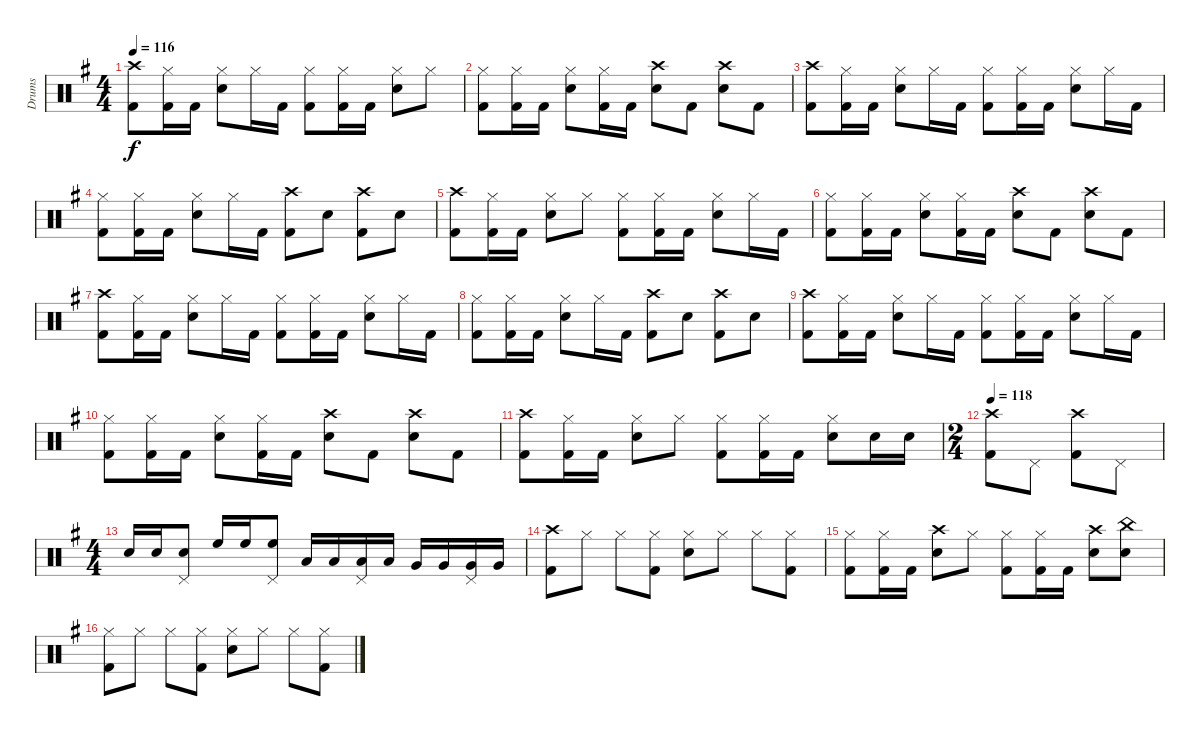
\track ("Drums" "Drums") {instrument percussion}
\staff {score}
\articulation defaults
\ts (4 4)
\tempo 116
\clef neutral
\ks eminor
("Crash high (hit)" "Kick (hit) 2").8{dy f} ("Hi-Hat (closed)" "Kick (hit) 2").16 "Kick (hit) 2".16 ("Hi-Hat (closed)" "Electric Snare (hit)").8 "Hi-Hat (closed)".16 "Kick (hit) 2".16 ("Hi-Hat (closed)" "Kick (hit) 2").8 ("Hi-Hat (closed)" "Kick (hit) 2").16 "Kick (hit) 2".16 ("Hi-Hat (closed)" "Electric Snare (hit)").8 "Hi-Hat (closed)".8 |
("Hi-Hat (closed)" "Kick (hit) 2").8 ("Hi-Hat (closed)" "Kick (hit) 2").16 "Kick (hit) 2".16 ("Hi-Hat (closed)" "Electric Snare (hit)").8 ("Hi-Hat (closed)" "Kick (hit) 2").16 "Kick (hit) 2".16 ("Crash high (hit)" "Electric Snare (hit)").8 "Kick (hit) 2".8 ("Crash high (hit)" "Electric Snare (hit)").8 "Kick (hit) 2".8 |
("Crash high (hit)" "Kick (hit) 2").8 ("Hi-Hat (closed)" "Kick (hit) 2").16 "Kick (hit) 2".16 ("Hi-Hat (closed)" "Electric Snare (hit)").8 "Hi-Hat (closed)".16 "Kick (hit) 2".16 ("Hi-Hat (closed)" "Kick (hit) 2").8 ("Hi-Hat (closed)" "Kick (hit) 2").16 "Kick (hit) 2".16 ("Hi-Hat (closed)" "Electric Snare (hit)").8 "Hi-Hat (closed)".16 "Kick (hit) 2".16 |
("Hi-Hat (closed)" "Kick (hit) 2").8 ("Hi-Hat (closed)" "Kick (hit) 2").16 "Kick (hit) 2".16 ("Hi-Hat (closed)" "Electric Snare (hit)").8 "Hi-Hat (closed)".16 "Kick (hit) 2".16 ("Crash high (hit)" "Kick (hit) 2").8 "Electric Snare (hit)".8 ("Crash high (hit)" "Kick (hit) 2").8 "Electric Snare (hit)".8 |
("Crash high (hit)" "Kick (hit) 2").8 ("Hi-Hat (closed)" "Kick (hit) 2").16 "Kick (hit) 2".16 ("Hi-Hat (closed)" "Electric Snare (hit)").8 "Hi-Hat (closed)".8 ("Hi-Hat (closed)" "Kick (hit) 2").8 ("Hi-Hat (closed)" "Kick (hit) 2").16 "Kick (hit) 2".16 ("Hi-Hat (closed)" "Electric Snare (hit)").8 "Hi-Hat (closed)".16 "Kick (hit) 2".16 |
("Hi-Hat (closed)" "Kick (hit) 2").8 ("Hi-Hat (closed)" "Kick (hit) 2").16 "Kick (hit) 2".16 ("Hi-Hat (closed)" "Electric Snare (hit)").8 ("Hi-Hat (closed)" "Kick (hit) 2").16 "Kick (hit) 2".16 ("Crash high (hit)" "Electric Snare (hit)").8 "Kick (hit) 2".8 ("Crash high (hit)" "Electric Snare (hit)").8 "Kick (hit) 2".8 |
("Crash high (hit)" "Kick (hit) 2").8 ("Hi-Hat (closed)" "Kick (hit) 2").16 "Kick (hit) 2".16 ("Hi-Hat (closed)" "Electric Snare (hit)").8 "Hi-Hat (closed)".16 "Kick (hit) 2".16 ("Hi-Hat (closed)" "Kick (hit) 2").8 ("Hi-Hat (closed)" "Kick (hit) 2").16 "Kick (hit) 2".16 ("Hi-Hat (closed)" "Electric Snare (hit)").8 "Hi-Hat (closed)".16 "Kick (hit) 2".16 |
("Hi-Hat (closed)" "Kick (hit) 2").8 ("Hi-Hat (closed)" "Kick (hit) 2").16 "Kick (hit) 2".16 ("Hi-Hat (closed)" "Electric Snare (hit)").8 "Hi-Hat (closed)".16 "Kick (hit) 2".16 ("Crash high (hit)" "Kick (hit) 2").8 "Electric Snare (hit)".8 ("Crash high (hit)" "Kick (hit) 2").8 "Electric Snare (hit)".8 |
("Crash high (hit)" "Kick (hit) 2").8 ("Hi-Hat (closed)" "Kick (hit) 2").16 "Kick (hit) 2".16 ("Hi-Hat (closed)" "Electric Snare (hit)").8 "Hi-Hat (closed)".16 "Kick (hit) 2".16 ("Hi-Hat (closed)" "Kick (hit) 2").8 ("Hi-Hat (closed)" "Kick (hit) 2").16 "Kick (hit) 2".16 ("Hi-Hat (closed)" "Electric Snare (hit)").8 "Hi-Hat (closed)".16 "Kick (hit) 2".16 |
("Hi-Hat (closed)" "Kick (hit) 2").8 ("Hi-Hat (closed)" "Kick (hit) 2").16 "Kick (hit) 2".16 ("Hi-Hat (closed)" "Electric Snare (hit)").8 ("Hi-Hat (closed)" "Kick (hit) 2").16 "Kick (hit) 2".16 ("Crash high (hit)" "Electric Snare (hit)").8 "Kick (hit) 2".8 ("Crash high (hit)" "Electric Snare (hit)").8 "Kick (hit) 2".8 |
("Crash high (hit)" "Kick (hit) 2").8 ("Hi-Hat (closed)" "Kick (hit) 2").16 "Kick (hit) 2".16 ("Hi-Hat (closed)" "Electric Snare (hit)").8 "Hi-Hat (closed)".8 ("Hi-Hat (closed)" "Kick (hit) 2").8 ("Hi-Hat (closed)" "Kick (hit) 2").16 "Kick (hit) 2".16 ("Hi-Hat (closed)" "Electric Snare (hit)").8 "Electric Snare (hit)".16 "Electric Snare (hit)".16 |
\ts (2 4)
\tempo 118
("Crash high (hit)" "Kick (hit) 2").8 "Pedal Hi-Hat (hit)".8 ("Crash high (hit)" "Kick (hit) 2").8 "Pedal Hi-Hat (hit)".8 |
\ts (4 4)
"Electric Snare (hit)".16 "Electric Snare (hit)".16 ("Pedal Hi-Hat (hit)" "Electric Snare (hit)").8 "High Floor Tom (hit)".16 "High Floor Tom (hit)".16 ("Pedal Hi-Hat (hit)" "High Floor Tom (hit)").8 "Low Tom (hit)".16 "Low Tom (hit)".16 ("Pedal Hi-Hat (hit)" "Low Tom (hit)").16 "Low Tom (hit)".16 "Very Low Tom (hit)".16 "Very Low Tom (hit)".16 ("Pedal Hi-Hat (hit)" "Very Low Tom (hit)").16 "Very Low Tom (hit)".16 |
("Crash high (hit)" "Kick (hit) 2").8 "Hi-Hat (closed)".8 "Hi-Hat (closed)".8 ("Hi-Hat (closed)" "Kick (hit) 2").8 ("Hi-Hat (closed)" "Electric Snare (hit)").8 "Hi-Hat (closed)".8 "Hi-Hat (closed)".8 ("Hi-Hat (closed)" "Kick (hit) 2").8 |
("Hi-Hat (closed)" "Kick (hit) 2").8 ("Hi-Hat (closed)" "Kick (hit) 2").16 "Kick (hit) 2".16 ("Crash high (hit)" "Electric Snare (hit)").8 "Hi-Hat (closed)".8 ("Hi-Hat (closed)" "Kick (hit) 2").8 ("Hi-Hat (closed)" "Kick (hit) 2").16 "Kick (hit) 2".16 ("Crash high (hit)" "Electric Snare (hit)").8 ("China (hit)" "Electric Snare (hit)").8 |
("Hi-Hat (closed)" "Kick (hit) 2").8 "Hi-Hat (closed)".8 "Hi-Hat (closed)".8 ("Hi-Hat (closed)" "Kick (hit) 2").8 ("Hi-Hat (closed)" "Electric Snare (hit)").8 "Hi-Hat (closed)".8 "Hi-Hat (closed)".8 ("Hi-Hat (closed)" "Kick (hit) 2").8
